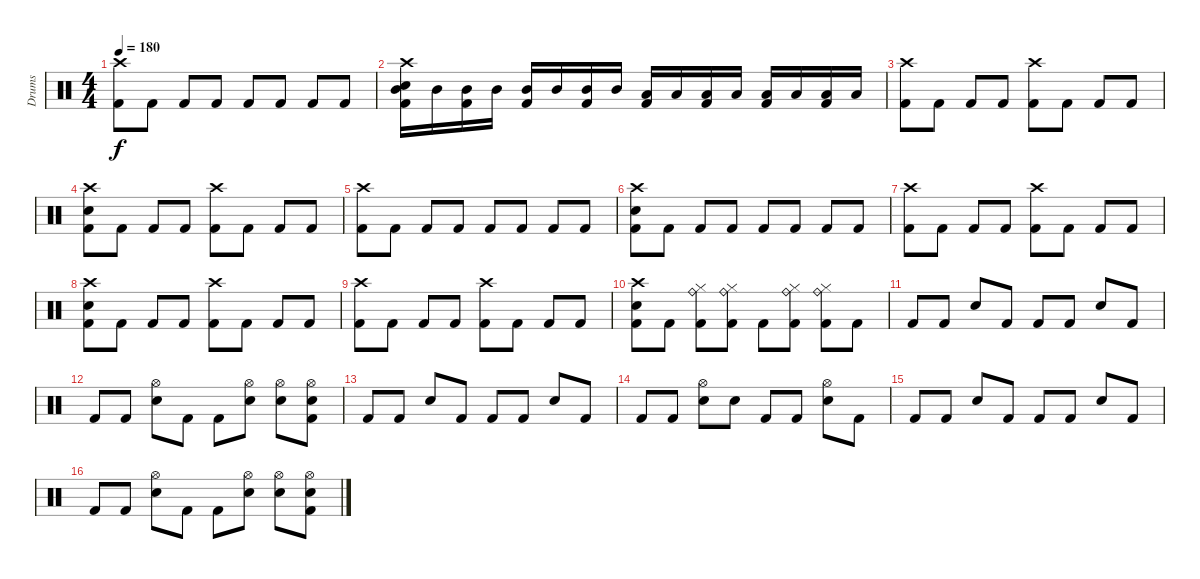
\track ("Drums" "Drums") {instrument percussion}
\staff {score}
\articulation defaults
\ts (4 4)
\tempo 180
\clef neutral
\ks c
("Crash high (hit)" "Kick (hit) 2").8{dy f} "Kick (hit) 2".8 "Kick (hit) 2".8 "Kick (hit) 2".8 "Kick (hit) 2".8 "Kick (hit) 2".8 "Kick (hit) 2".8 "Kick (hit) 2".8 |
("Crash high (hit)" "Mid Tom (hit)" "Electric Snare (hit)" "Kick (hit) 2").16 "Mid Tom (hit)".16 ("Mid Tom (hit)" "Kick (hit) 2").16 "Mid Tom (hit)".16 ("Mid Tom (hit)" "Kick (hit) 2").16 "Mid Tom (hit)".16 ("Mid Tom (hit)" "Kick (hit) 2").16 "Mid Tom (hit)".16 ("Low Tom (hit)" "Kick (hit) 2").16 "Low Tom (hit)".16 ("Low Tom (hit)" "Kick (hit) 2").16 "Low Tom (hit)".16 ("Low Tom (hit)" "Kick (hit) 2").16 "Low Tom (hit)".16 ("Low Tom (hit)" "Kick (hit) 2").16 "Low Tom (hit)".16 |
("Crash high (hit)" "Kick (hit) 2").8 "Kick (hit) 2".8 "Kick (hit) 2".8 "Kick (hit) 2".8 ("Crash high (hit)" "Kick (hit) 2").8 "Kick (hit) 2".8 "Kick (hit) 2".8 "Kick (hit) 2".8 |
("Crash high (hit)" "Electric Snare (hit)" "Kick (hit) 2").8 "Kick (hit) 2".8 "Kick (hit) 2".8 "Kick (hit) 2".8 ("Crash high (hit)" "Kick (hit) 2").8 "Kick (hit) 2".8 "Kick (hit) 2".8 "Kick (hit) 2".8 |
("Crash high (hit)" "Kick (hit) 2").8 "Kick (hit) 2".8 "Kick (hit) 2".8 "Kick (hit) 2".8 "Kick (hit) 2".8 "Kick (hit) 2".8 "Kick (hit) 2".8 "Kick (hit) 2".8 |
("Crash high (hit)" "Electric Snare (hit)" "Kick (hit) 2").8 "Kick (hit) 2".8 "Kick (hit) 2".8 "Kick (hit) 2".8 "Kick (hit) 2".8 "Kick (hit) 2".8 "Kick (hit) 2".8 "Kick (hit) 2".8 |
("Crash high (hit)" "Kick (hit) 2").8 "Kick (hit) 2".8 "Kick (hit) 2".8 "Kick (hit) 2".8 ("Crash high (hit)" "Kick (hit) 2").8 "Kick (hit) 2".8 "Kick (hit) 2".8 "Kick (hit) 2".8 |
("Crash high (hit)" "Electric Snare (hit)" "Kick (hit) 2").8 "Kick (hit) 2".8 "Kick (hit) 2".8 "Kick (hit) 2".8 ("Crash high (hit)" "Kick (hit) 2").8 "Kick (hit) 2".8 "Kick (hit) 2".8 "Kick (hit) 2".8 |
("Crash high (hit)" "Kick (hit) 2").8 "Kick (hit) 2".8 "Kick (hit) 2".8 "Kick (hit) 2".8 ("Crash high (hit)" "Kick (hit) 2").8 "Kick (hit) 2".8 "Kick (hit) 2".8 "Kick (hit) 2".8 |
("Crash high (hit)" "Electric Snare (hit)" "Kick (hit) 2").8 "Kick (hit) 2".8 ("Ride (bell)" "Hi-Hat (closed)" "Kick (hit) 2").8 ("Ride (bell)" "Hi-Hat (closed)" "Kick (hit) 2").8 "Kick (hit) 2".8 ("Ride (bell)" "Hi-Hat (closed)" "Kick (hit) 2").8 ("Ride (bell)" "Hi-Hat (closed)" "Kick (hit) 2").8 "Kick (hit) 2".8 |
"Kick (hit) 2".8 "Kick (hit) 2".8 "Electric Snare (hit)".8 "Kick (hit) 2".8 "Kick (hit) 2".8 "Kick (hit) 2".8 "Electric Snare (hit)".8 "Kick (hit) 2".8 |
"Kick (hit) 2".8 "Kick (hit) 2".8 ("Hi-Hat (open)" "Electric Snare (hit)").8 "Kick (hit) 2".8 "Kick (hit) 2".8 ("Hi-Hat (open)" "Electric Snare (hit)").8 ("Hi-Hat (open)" "Electric Snare (hit)").8 ("Hi-Hat (open)" "Electric Snare (hit)" "Kick (hit) 2").8 |
"Kick (hit) 2".8 "Kick (hit) 2".8 "Electric Snare (hit)".8 "Kick (hit) 2".8 "Kick (hit) 2".8 "Kick (hit) 2".8 "Electric Snare (hit)".8 "Kick (hit) 2".8 |
"Kick (hit) 2".8 "Kick (hit) 2".8 ("Hi-Hat (open)" "Electric Snare (hit)").8 "Electric Snare (hit)".8 "Kick (hit) 2".8 "Kick (hit) 2".8 ("Hi-Hat (open)" "Electric Snare (hit)").8 "Kick (hit) 2".8 |
"Kick (hit) 2".8 "Kick (hit) 2".8 "Electric Snare (hit)".8 "Kick (hit) 2".8 "Kick (hit) 2".8 "Kick (hit) 2".8 "Electric Snare (hit)".8 "Kick (hit) 2".8 |
"Kick (hit) 2".8 "Kick (hit) 2".8 ("Hi-Hat (open)" "Electric Snare (hit)").8 "Kick (hit) 2".8 "Kick (hit) 2".8 ("Hi-Hat (open)" "Electric Snare (hit)").8 ("Hi-Hat (open)" "Electric Snare (hit)").8 ("Hi-Hat (open)" "Electric Snare (hit)" "Kick (hit) 2").8
